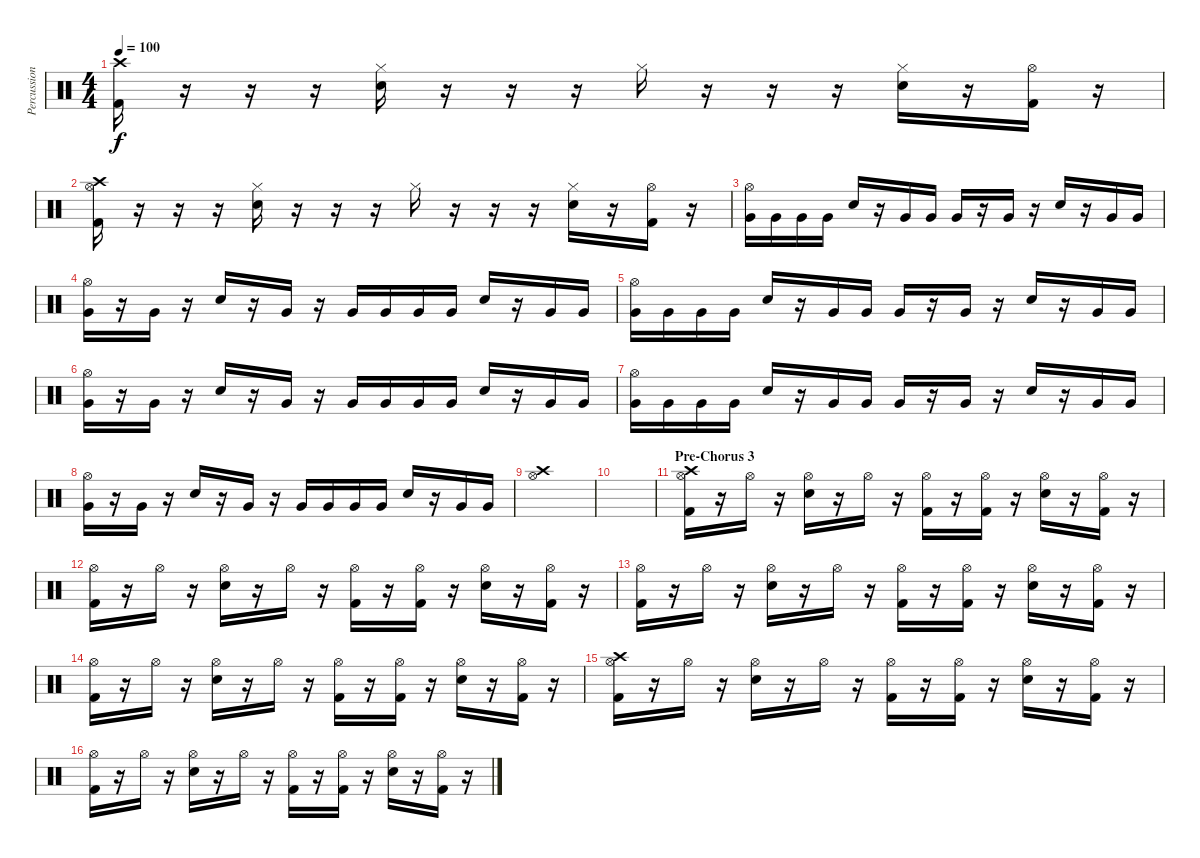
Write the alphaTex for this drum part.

\track ("Percussion" "Percussion") {instrument percussion}
\staff {score}
\articulation defaults
\ts (4 4)
\tempo 100
\clef neutral
\ks c
("Kick (hit) 2" "Crash high (hit)").16{dy f} r.16 r.16 r.16 ("Snare (hit) 2" "Hi-Hat (closed)").16 r.16 r.16 r.16 "Hi-Hat (closed)".16 r.16 r.16 r.16 ("Snare (hit) 2" "Hi-Hat (closed)").16 r.16 ("Kick (hit) 2" "Hi-Hat (open)").16 r.16 |
("Kick (hit) 2" "Hi-Hat (open)" "Crash high (hit)").16 r.16 r.16 r.16 ("Snare (hit) 2" "Hi-Hat (closed)").16 r.16 r.16 r.16 "Hi-Hat (closed)".16 r.16 r.16 r.16 ("Snare (hit) 2" "Hi-Hat (closed)").16 r.16 ("Kick (hit) 2" "Hi-Hat (open)").16 r.16 |
("Very Low Tom (hit)" "Hi-Hat (open)").16 "Very Low Tom (hit)".16 "Very Low Tom (hit)".16 "Very Low Tom (hit)".16 "Snare (hit) 2".16 r.16 "Very Low Tom (hit)".16 "Very Low Tom (hit)".16 "Very Low Tom (hit)".16 r.16 "Very Low Tom (hit)".16 r.16 "Snare (hit) 2".16 r.16 "Very Low Tom (hit)".16 "Very Low Tom (hit)".16 |
("Very Low Tom (hit)" "Hi-Hat (open)").16 r.16 "Very Low Tom (hit)".16 r.16 "Snare (hit) 2".16 r.16 "Very Low Tom (hit)".16 r.16 "Very Low Tom (hit)".16 "Very Low Tom (hit)".16 "Very Low Tom (hit)".16 "Very Low Tom (hit)".16 "Snare (hit) 2".16 r.16 "Very Low Tom (hit)".16 "Very Low Tom (hit)".16 |
("Very Low Tom (hit)" "Hi-Hat (open)").16 "Very Low Tom (hit)".16 "Very Low Tom (hit)".16 "Very Low Tom (hit)".16 "Snare (hit) 2".16 r.16 "Very Low Tom (hit)".16 "Very Low Tom (hit)".16 "Very Low Tom (hit)".16 r.16 "Very Low Tom (hit)".16 r.16 "Snare (hit) 2".16 r.16 "Very Low Tom (hit)".16 "Very Low Tom (hit)".16 |
("Very Low Tom (hit)" "Hi-Hat (open)").16 r.16 "Very Low Tom (hit)".16 r.16 "Snare (hit) 2".16 r.16 "Very Low Tom (hit)".16 r.16 "Very Low Tom (hit)".16 "Very Low Tom (hit)".16 "Very Low Tom (hit)".16 "Very Low Tom (hit)".16 "Snare (hit) 2".16 r.16 "Very Low Tom (hit)".16 "Very Low Tom (hit)".16 |
("Very Low Tom (hit)" "Hi-Hat (open)").16 "Very Low Tom (hit)".16 "Very Low Tom (hit)".16 "Very Low Tom (hit)".16 "Snare (hit) 2".16 r.16 "Very Low Tom (hit)".16 "Very Low Tom (hit)".16 "Very Low Tom (hit)".16 r.16 "Very Low Tom (hit)".16 r.16 "Snare (hit) 2".16 r.16 "Very Low Tom (hit)".16 "Very Low Tom (hit)".16 |
("Very Low Tom (hit)" "Hi-Hat (open)").16 r.16 "Very Low Tom (hit)".16 r.16 "Snare (hit) 2".16 r.16 "Very Low Tom (hit)".16 r.16 "Very Low Tom (hit)".16 "Very Low Tom (hit)".16 "Very Low Tom (hit)".16 "Very Low Tom (hit)".16 "Snare (hit) 2".16 r.16 "Very Low Tom (hit)".16 "Very Low Tom (hit)".16 |
("Hi-Hat (open)" "Crash high (hit)").1 |
|
\section ("" "Pre-Chorus 3")
("Kick (hit) 2" "Hi-Hat (open)" "Crash high (hit)").16 r.16 "Hi-Hat (open)".16 r.16 ("Snare (hit) 2" "Hi-Hat (open)").16 r.16 "Hi-Hat (open)".16 r.16 ("Kick (hit) 2" "Hi-Hat (open)").16 r.16 ("Kick (hit) 2" "Hi-Hat (open)").16 r.16 ("Snare (hit) 2" "Hi-Hat (open)").16 r.16 ("Kick (hit) 2" "Hi-Hat (open)").16 r.16 |
("Kick (hit) 2" "Hi-Hat (open)").16 r.16 "Hi-Hat (open)".16 r.16 ("Snare (hit) 2" "Hi-Hat (open)").16 r.16 "Hi-Hat (open)".16 r.16 ("Kick (hit) 2" "Hi-Hat (open)").16 r.16 ("Kick (hit) 2" "Hi-Hat (open)").16 r.16 ("Snare (hit) 2" "Hi-Hat (open)").16 r.16 ("Kick (hit) 2" "Hi-Hat (open)").16 r.16 |
("Kick (hit) 2" "Hi-Hat (open)").16 r.16 "Hi-Hat (open)".16 r.16 ("Snare (hit) 2" "Hi-Hat (open)").16 r.16 "Hi-Hat (open)".16 r.16 ("Kick (hit) 2" "Hi-Hat (open)").16 r.16 ("Kick (hit) 2" "Hi-Hat (open)").16 r.16 ("Snare (hit) 2" "Hi-Hat (open)").16 r.16 ("Kick (hit) 2" "Hi-Hat (open)").16 r.16 |
("Kick (hit) 2" "Hi-Hat (open)").16 r.16 "Hi-Hat (open)".16 r.16 ("Snare (hit) 2" "Hi-Hat (open)").16 r.16 "Hi-Hat (open)".16 r.16 ("Kick (hit) 2" "Hi-Hat (open)").16 r.16 ("Kick (hit) 2" "Hi-Hat (open)").16 r.16 ("Snare (hit) 2" "Hi-Hat (open)").16 r.16 ("Kick (hit) 2" "Hi-Hat (open)").16 r.16 |
("Kick (hit) 2" "Hi-Hat (open)" "Crash high (hit)").16 r.16 "Hi-Hat (open)".16 r.16 ("Snare (hit) 2" "Hi-Hat (open)").16 r.16 "Hi-Hat (open)".16 r.16 ("Kick (hit) 2" "Hi-Hat (open)").16 r.16 ("Kick (hit) 2" "Hi-Hat (open)").16 r.16 ("Snare (hit) 2" "Hi-Hat (open)").16 r.16 ("Kick (hit) 2" "Hi-Hat (open)").16 r.16 |
("Kick (hit) 2" "Hi-Hat (open)").16 r.16 "Hi-Hat (open)".16 r.16 ("Snare (hit) 2" "Hi-Hat (open)").16 r.16 "Hi-Hat (open)".16 r.16 ("Kick (hit) 2" "Hi-Hat (open)").16 r.16 ("Kick (hit) 2" "Hi-Hat (open)").16 r.16 ("Snare (hit) 2" "Hi-Hat (open)").16 r.16 ("Kick (hit) 2" "Hi-Hat (open)").16 r.16
